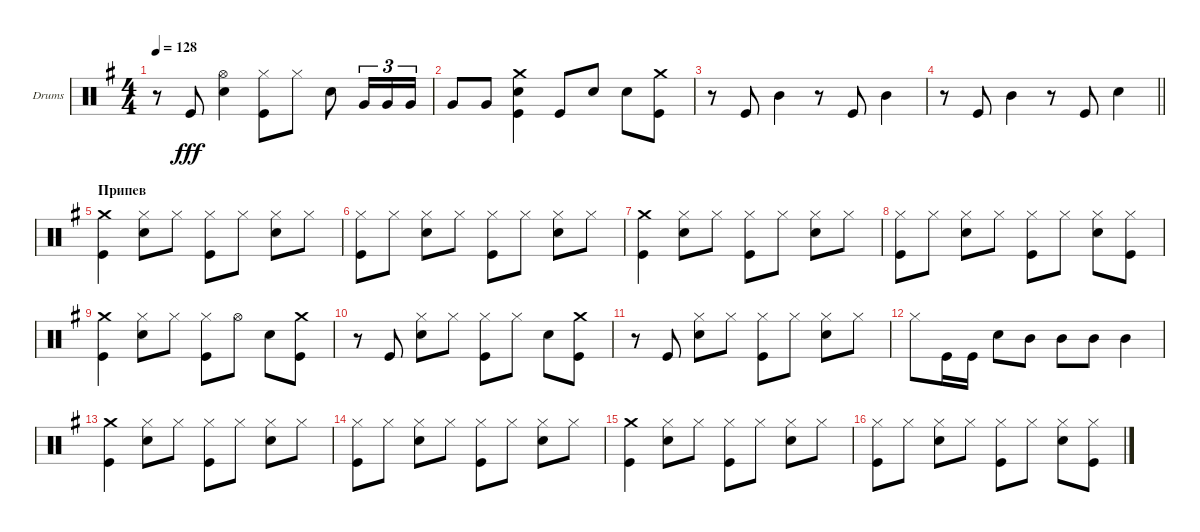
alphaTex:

\bracketExtendMode groupsimilarinstruments
\firstSystemTrackNameOrientation horizontal
\otherSystemsTrackNameOrientation horizontal
\track ("Барабаны" "Drums") {instrument percussion}
\staff {score}
\articulation defaults
\ts (4 4)
\tempo 128
\clef neutral
\ks eminor
r.8{dy fff} "Kick (hit)".8 ("Snare (hit) 2" "Hi-Hat (open)").4 ("Kick (hit)" "Hi-Hat (closed)").8 "Hi-Hat (closed)".8 "Snare (hit) 2".8 "Very Low Tom (hit)".16{tu (3 2)} "Very Low Tom (hit)".16{tu (3 2)} "Very Low Tom (hit)".16{tu (3 2)} |
"Very Low Tom (hit)".8 "Very Low Tom (hit)".8 ("Kick (hit)" "Crash medium (hit)" "Snare (hit) 2").4 "Kick (hit)".8 "Snare (hit) 2".8 "Snare (hit) 2".8 ("Kick (hit)" "Crash medium (hit)").8 |
r.8 "Kick (hit)".8 "Mid Tom (hit)".4 r.8 "Kick (hit)".8 "Mid Tom (hit)".4 |
\barLineRight lightlight
r.8 "Kick (hit)".8 "Mid Tom (hit)".4 r.8 "Kick (hit)".8 "Snare (hit) 2".4 |
\section ("" "Припев")
("Crash medium (hit)" "Kick (hit)").4 ("Hi-Hat (closed)" "Snare (hit) 2").8 "Hi-Hat (closed)".8 ("Hi-Hat (closed)" "Kick (hit)").8 "Hi-Hat (closed)".8 ("Hi-Hat (closed)" "Snare (hit) 2").8 "Hi-Hat (closed)".8 |
("Hi-Hat (closed)" "Kick (hit)").8 "Hi-Hat (closed)".8 ("Hi-Hat (closed)" "Snare (hit) 2").8 "Hi-Hat (closed)".8 ("Hi-Hat (closed)" "Kick (hit)").8 "Hi-Hat (closed)".8 ("Hi-Hat (closed)" "Snare (hit) 2").8 "Hi-Hat (closed)".8 |
("Crash medium (hit)" "Kick (hit)").4 ("Hi-Hat (closed)" "Snare (hit) 2").8 "Hi-Hat (closed)".8 ("Hi-Hat (closed)" "Kick (hit)").8 "Hi-Hat (closed)".8 ("Hi-Hat (closed)" "Snare (hit) 2").8 "Hi-Hat (closed)".8 |
("Hi-Hat (closed)" "Kick (hit)").8 "Hi-Hat (closed)".8 ("Hi-Hat (closed)" "Snare (hit) 2").8 "Hi-Hat (closed)".8 ("Hi-Hat (closed)" "Kick (hit)").8 "Hi-Hat (closed)".8 ("Hi-Hat (closed)" "Snare (hit) 2").8 ("Hi-Hat (closed)" "Kick (hit)").8 |
("Crash medium (hit)" "Kick (hit)").4 ("Hi-Hat (closed)" "Snare (hit) 2").8 "Hi-Hat (closed)".8 ("Hi-Hat (closed)" "Kick (hit)").8 "Hi-Hat (open)".8 "Snare (hit) 2".8 ("Kick (hit)" "Crash medium (hit)").8 |
r.8 "Kick (hit)".8 ("Hi-Hat (closed)" "Snare (hit) 2").8 "Hi-Hat (closed)".8 ("Hi-Hat (closed)" "Kick (hit)").8 "Hi-Hat (closed)".8 "Snare (hit) 2".8 ("Kick (hit)" "Crash medium (hit)").8 |
r.8 "Kick (hit)".8 ("Hi-Hat (closed)" "Snare (hit) 2").8 "Hi-Hat (closed)".8 ("Hi-Hat (closed)" "Kick (hit)").8 "Hi-Hat (closed)".8 ("Hi-Hat (closed)" "Snare (hit) 2").8 "Hi-Hat (closed)".8 |
"Hi-Hat (closed)".8 "Kick (hit)".16 "Kick (hit)".16 "Snare (hit) 2".8 "Mid Tom (hit)".8 "Mid Tom (hit)".8 "Mid Tom (hit)".8 "Mid Tom (hit)".4 |
("Crash medium (hit)" "Kick (hit)").4 ("Hi-Hat (closed)" "Snare (hit) 2").8 "Hi-Hat (closed)".8 ("Hi-Hat (closed)" "Kick (hit)").8 "Hi-Hat (closed)".8 ("Hi-Hat (closed)" "Snare (hit) 2").8 "Hi-Hat (closed)".8 |
("Hi-Hat (closed)" "Kick (hit)").8 "Hi-Hat (closed)".8 ("Hi-Hat (closed)" "Snare (hit) 2").8 "Hi-Hat (closed)".8 ("Hi-Hat (closed)" "Kick (hit)").8 "Hi-Hat (closed)".8 ("Hi-Hat (closed)" "Snare (hit) 2").8 "Hi-Hat (closed)".8 |
("Crash medium (hit)" "Kick (hit)").4 ("Hi-Hat (closed)" "Snare (hit) 2").8 "Hi-Hat (closed)".8 ("Hi-Hat (closed)" "Kick (hit)").8 "Hi-Hat (closed)".8 ("Hi-Hat (closed)" "Snare (hit) 2").8 "Hi-Hat (closed)".8 |
("Hi-Hat (closed)" "Kick (hit)").8 "Hi-Hat (closed)".8 ("Hi-Hat (closed)" "Snare (hit) 2").8 "Hi-Hat (closed)".8 ("Hi-Hat (closed)" "Kick (hit)").8 "Hi-Hat (closed)".8 ("Hi-Hat (closed)" "Snare (hit) 2").8 ("Hi-Hat (closed)" "Kick (hit)").8
